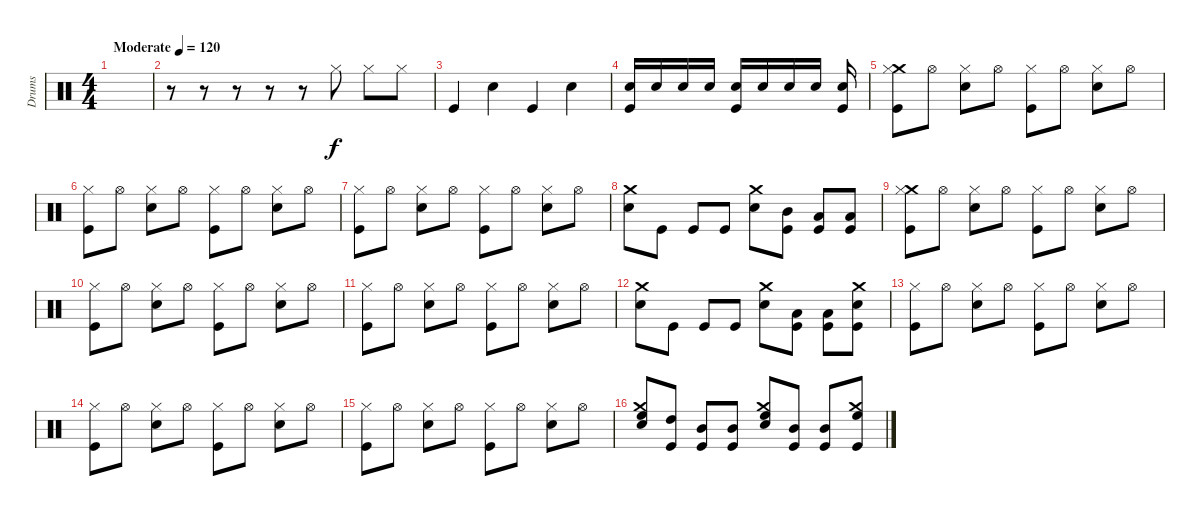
\track ("Drums" "Drums") {instrument percussion}
\staff {score}
\articulation defaults
\ts (4 4)
\tempo (120 "Moderate")
\clef neutral
\ks c
|
r.8 r.8 r.8 r.8 r.8 "Hi-Hat (closed)".8 "Hi-Hat (closed)".8 "Hi-Hat (closed)".8 |
"Kick (hit)".4 "Snare (hit) 2".4 "Kick (hit)".4 "Snare (hit) 2".4 |
("Snare (hit) 2" "Kick (hit)").16 "Snare (hit) 2".16 "Snare (hit) 2".16 "Snare (hit) 2".16 ("Snare (hit) 2" "Kick (hit)").16 "Snare (hit) 2".16 "Snare (hit) 2".16 "Snare (hit) 2".16 ("Snare (hit) 2" "Kick (hit)").16 |
("Crash medium (hit)" "Hi-Hat (closed)" "Kick (hit)").8 "Hi-Hat (open)".8 ("Snare (hit) 2" "Hi-Hat (closed)").8 "Hi-Hat (open)".8 ("Hi-Hat (closed)" "Kick (hit)").8 "Hi-Hat (open)".8 ("Snare (hit) 2" "Hi-Hat (closed)").8 "Hi-Hat (open)".8 |
("Hi-Hat (closed)" "Kick (hit)").8 "Hi-Hat (open)".8 ("Snare (hit) 2" "Hi-Hat (closed)").8 "Hi-Hat (open)".8 ("Hi-Hat (closed)" "Kick (hit)").8 "Hi-Hat (open)".8 ("Snare (hit) 2" "Hi-Hat (closed)").8 "Hi-Hat (open)".8 |
("Hi-Hat (closed)" "Kick (hit)").8 "Hi-Hat (open)".8 ("Snare (hit) 2" "Hi-Hat (closed)").8 "Hi-Hat (open)".8 ("Hi-Hat (closed)" "Kick (hit)").8 "Hi-Hat (open)".8 ("Snare (hit) 2" "Hi-Hat (closed)").8 "Hi-Hat (open)".8 |
("Crash medium (hit)" "Snare (hit) 2").8 "Kick (hit)".8 "Kick (hit)".8 "Kick (hit)".8 ("Crash medium (hit)" "Snare (hit) 2").8 ("Mid Tom (hit)" "Kick (hit)").8 ("Low Tom (hit)" "Kick (hit)").8 ("Low Tom (hit)" "Kick (hit)").8 |
("Crash medium (hit)" "Hi-Hat (closed)" "Kick (hit)").8 "Hi-Hat (open)".8 ("Snare (hit) 2" "Hi-Hat (closed)").8 "Hi-Hat (open)".8 ("Hi-Hat (closed)" "Kick (hit)").8 "Hi-Hat (open)".8 ("Snare (hit) 2" "Hi-Hat (closed)").8 "Hi-Hat (open)".8 |
("Hi-Hat (closed)" "Kick (hit)").8 "Hi-Hat (open)".8 ("Snare (hit) 2" "Hi-Hat (closed)").8 "Hi-Hat (open)".8 ("Hi-Hat (closed)" "Kick (hit)").8 "Hi-Hat (open)".8 ("Snare (hit) 2" "Hi-Hat (closed)").8 "Hi-Hat (open)".8 |
("Hi-Hat (closed)" "Kick (hit)").8 "Hi-Hat (open)".8 ("Snare (hit) 2" "Hi-Hat (closed)").8 "Hi-Hat (open)".8 ("Hi-Hat (closed)" "Kick (hit)").8 "Hi-Hat (open)".8 ("Snare (hit) 2" "Hi-Hat (closed)").8 "Hi-Hat (open)".8 |
("Crash medium (hit)" "Snare (hit) 2").8 "Kick (hit)".8 "Kick (hit)".8 "Kick (hit)".8 ("Crash medium (hit)" "Snare (hit) 2").8 ("Low Tom (hit)" "Kick (hit)").8 ("Low Tom (hit)" "Kick (hit)").8 ("Crash medium (hit)" "Snare (hit) 2" "Kick (hit)").8 |
("Hi-Hat (closed)" "Kick (hit)").8 "Hi-Hat (open)".8 ("Snare (hit) 2" "Hi-Hat (closed)").8 "Hi-Hat (open)".8 ("Hi-Hat (closed)" "Kick (hit)").8 "Hi-Hat (open)".8 ("Snare (hit) 2" "Hi-Hat (closed)").8 "Hi-Hat (open)".8 |
("Hi-Hat (closed)" "Kick (hit)").8 "Hi-Hat (open)".8 ("Snare (hit) 2" "Hi-Hat (closed)").8 "Hi-Hat (open)".8 ("Hi-Hat (closed)" "Kick (hit)").8 "Hi-Hat (open)".8 ("Snare (hit) 2" "Hi-Hat (closed)").8 "Hi-Hat (open)".8 |
("Hi-Hat (closed)" "Kick (hit)").8 "Hi-Hat (open)".8 ("Snare (hit) 2" "Hi-Hat (closed)").8 "Hi-Hat (open)".8 ("Hi-Hat (closed)" "Kick (hit)").8 "Hi-Hat (open)".8 ("Snare (hit) 2" "Hi-Hat (closed)").8 "Hi-Hat (open)".8 |
("Crash medium (hit)" "High Floor Tom (hit)" "Snare (hit) 2").8 ("High Tom (hit)" "Kick (hit)").8 ("Mid Tom (hit)" "Kick (hit)").8 ("Mid Tom (hit)" "Kick (hit)").8 ("Crash medium (hit)" "High Floor Tom (hit)" "Snare (hit) 2").8 ("Mid Tom (hit)" "Kick (hit)").8 ("Mid Tom (hit)" "Kick (hit)").8 ("Crash medium (hit)" "High Floor Tom (hit)" "Kick (hit)").8
